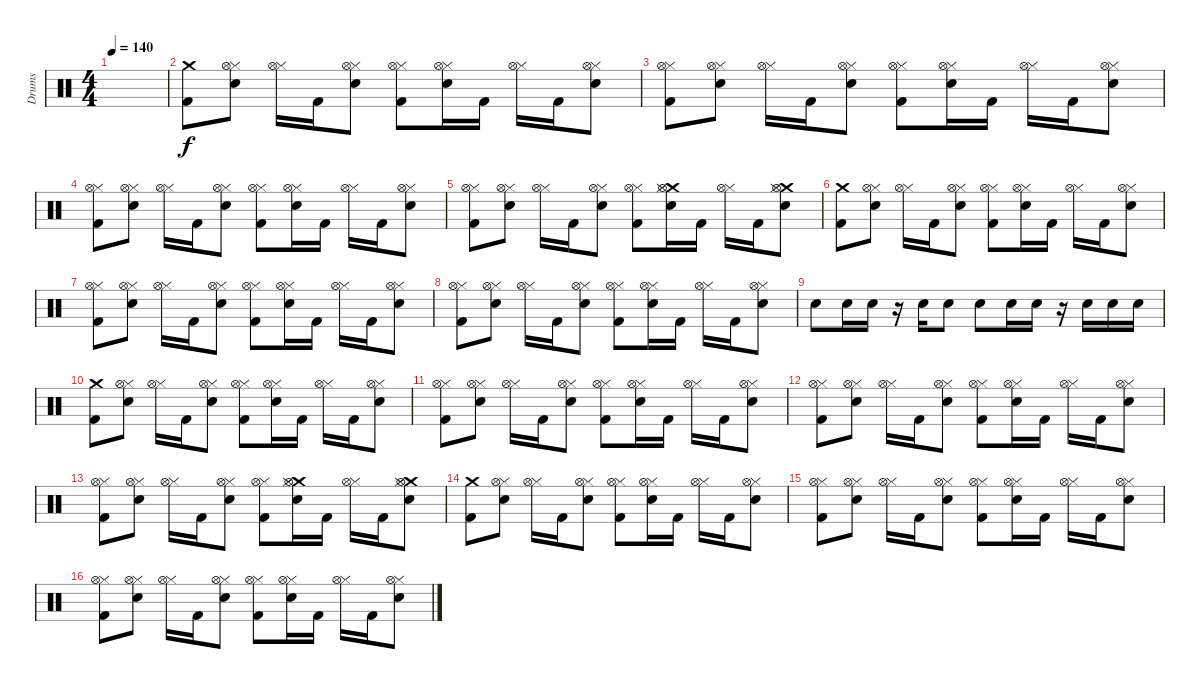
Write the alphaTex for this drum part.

\track ("Drums" "Drums") {instrument percussion}
\staff {score}
\articulation defaults
\ts (4 4)
\tempo 140
\clef neutral
\ks c
|
("Crash medium (hit)" "Kick (hit) 2").8 ("Hi-Hat (closed)" "Hi-Hat (open)" "Electric Snare (hit)").8 ("Hi-Hat (closed)" "Hi-Hat (open)").16 "Kick (hit) 2".16 ("Hi-Hat (closed)" "Hi-Hat (open)" "Electric Snare (hit)").8 ("Hi-Hat (closed)" "Hi-Hat (open)" "Kick (hit) 2").8 ("Hi-Hat (closed)" "Hi-Hat (open)" "Electric Snare (hit)").16 "Kick (hit) 2".16 ("Hi-Hat (closed)" "Hi-Hat (open)").16 "Kick (hit) 2".16 ("Hi-Hat (closed)" "Hi-Hat (open)" "Electric Snare (hit)").8 |
("Hi-Hat (closed)" "Hi-Hat (open)" "Kick (hit) 2").8 ("Hi-Hat (closed)" "Hi-Hat (open)" "Electric Snare (hit)").8 ("Hi-Hat (closed)" "Hi-Hat (open)").16 "Kick (hit) 2".16 ("Hi-Hat (closed)" "Hi-Hat (open)" "Electric Snare (hit)").8 ("Hi-Hat (closed)" "Hi-Hat (open)" "Kick (hit) 2").8 ("Hi-Hat (closed)" "Hi-Hat (open)" "Electric Snare (hit)").16 "Kick (hit) 2".16 ("Hi-Hat (closed)" "Hi-Hat (open)").16 "Kick (hit) 2".16 ("Hi-Hat (closed)" "Hi-Hat (open)" "Electric Snare (hit)").8 |
("Hi-Hat (closed)" "Hi-Hat (open)" "Kick (hit) 2").8 ("Hi-Hat (closed)" "Hi-Hat (open)" "Electric Snare (hit)").8 ("Hi-Hat (closed)" "Hi-Hat (open)").16 "Kick (hit) 2".16 ("Hi-Hat (closed)" "Hi-Hat (open)" "Electric Snare (hit)").8 ("Hi-Hat (closed)" "Hi-Hat (open)" "Kick (hit) 2").8 ("Hi-Hat (closed)" "Hi-Hat (open)" "Electric Snare (hit)").16 "Kick (hit) 2".16 ("Hi-Hat (closed)" "Hi-Hat (open)").16 "Kick (hit) 2".16 ("Hi-Hat (closed)" "Hi-Hat (open)" "Electric Snare (hit)").8 |
("Hi-Hat (closed)" "Hi-Hat (open)" "Kick (hit) 2").8 ("Hi-Hat (closed)" "Hi-Hat (open)" "Electric Snare (hit)").8 ("Hi-Hat (closed)" "Hi-Hat (open)").16 "Kick (hit) 2".16 ("Hi-Hat (closed)" "Hi-Hat (open)" "Electric Snare (hit)").8 ("Hi-Hat (closed)" "Hi-Hat (open)" "Kick (hit) 2").8 ("Crash medium (hit)" "Hi-Hat (closed)" "Hi-Hat (open)" "Electric Snare (hit)").16 "Kick (hit) 2".16 ("Hi-Hat (closed)" "Hi-Hat (open)").16 "Kick (hit) 2".16 ("Crash medium (hit)" "Hi-Hat (closed)" "Hi-Hat (open)" "Electric Snare (hit)").8 |
("Crash medium (hit)" "Kick (hit) 2").8 ("Hi-Hat (closed)" "Hi-Hat (open)" "Electric Snare (hit)").8 ("Hi-Hat (closed)" "Hi-Hat (open)").16 "Kick (hit) 2".16 ("Hi-Hat (closed)" "Hi-Hat (open)" "Electric Snare (hit)").8 ("Hi-Hat (closed)" "Hi-Hat (open)" "Kick (hit) 2").8 ("Hi-Hat (closed)" "Hi-Hat (open)" "Electric Snare (hit)").16 "Kick (hit) 2".16 ("Hi-Hat (closed)" "Hi-Hat (open)").16 "Kick (hit) 2".16 ("Hi-Hat (closed)" "Hi-Hat (open)" "Electric Snare (hit)").8 |
("Hi-Hat (closed)" "Hi-Hat (open)" "Kick (hit) 2").8 ("Hi-Hat (closed)" "Hi-Hat (open)" "Electric Snare (hit)").8 ("Hi-Hat (closed)" "Hi-Hat (open)").16 "Kick (hit) 2".16 ("Hi-Hat (closed)" "Hi-Hat (open)" "Electric Snare (hit)").8 ("Hi-Hat (closed)" "Hi-Hat (open)" "Kick (hit) 2").8 ("Hi-Hat (closed)" "Hi-Hat (open)" "Electric Snare (hit)").16 "Kick (hit) 2".16 ("Hi-Hat (closed)" "Hi-Hat (open)").16 "Kick (hit) 2".16 ("Hi-Hat (closed)" "Hi-Hat (open)" "Electric Snare (hit)").8 |
("Hi-Hat (closed)" "Hi-Hat (open)" "Kick (hit) 2").8 ("Hi-Hat (closed)" "Hi-Hat (open)" "Electric Snare (hit)").8 ("Hi-Hat (closed)" "Hi-Hat (open)").16 "Kick (hit) 2".16 ("Hi-Hat (closed)" "Hi-Hat (open)" "Electric Snare (hit)").8 ("Hi-Hat (closed)" "Hi-Hat (open)" "Kick (hit) 2").8 ("Hi-Hat (closed)" "Hi-Hat (open)" "Electric Snare (hit)").16 "Kick (hit) 2".16 ("Hi-Hat (closed)" "Hi-Hat (open)").16 "Kick (hit) 2".16 ("Hi-Hat (closed)" "Hi-Hat (open)" "Electric Snare (hit)").8 |
"Electric Snare (hit)".8 "Electric Snare (hit)".16 "Electric Snare (hit)".16 r.16 "Electric Snare (hit)".16 "Electric Snare (hit)".8 "Electric Snare (hit)".8 "Electric Snare (hit)".16 "Electric Snare (hit)".16 r.16 "Electric Snare (hit)".16 "Electric Snare (hit)".16 "Electric Snare (hit)".16 |
("Crash medium (hit)" "Kick (hit) 2").8 ("Hi-Hat (closed)" "Hi-Hat (open)" "Electric Snare (hit)").8 ("Hi-Hat (closed)" "Hi-Hat (open)").16 "Kick (hit) 2".16 ("Hi-Hat (closed)" "Hi-Hat (open)" "Electric Snare (hit)").8 ("Hi-Hat (closed)" "Hi-Hat (open)" "Kick (hit) 2").8 ("Hi-Hat (closed)" "Hi-Hat (open)" "Electric Snare (hit)").16 "Kick (hit) 2".16 ("Hi-Hat (closed)" "Hi-Hat (open)").16 "Kick (hit) 2".16 ("Hi-Hat (closed)" "Hi-Hat (open)" "Electric Snare (hit)").8 |
("Hi-Hat (closed)" "Hi-Hat (open)" "Kick (hit) 2").8 ("Hi-Hat (closed)" "Hi-Hat (open)" "Electric Snare (hit)").8 ("Hi-Hat (closed)" "Hi-Hat (open)").16 "Kick (hit) 2".16 ("Hi-Hat (closed)" "Hi-Hat (open)" "Electric Snare (hit)").8 ("Hi-Hat (closed)" "Hi-Hat (open)" "Kick (hit) 2").8 ("Hi-Hat (closed)" "Hi-Hat (open)" "Electric Snare (hit)").16 "Kick (hit) 2".16 ("Hi-Hat (closed)" "Hi-Hat (open)").16 "Kick (hit) 2".16 ("Hi-Hat (closed)" "Hi-Hat (open)" "Electric Snare (hit)").8 |
("Hi-Hat (closed)" "Hi-Hat (open)" "Kick (hit) 2").8 ("Hi-Hat (closed)" "Hi-Hat (open)" "Electric Snare (hit)").8 ("Hi-Hat (closed)" "Hi-Hat (open)").16 "Kick (hit) 2".16 ("Hi-Hat (closed)" "Hi-Hat (open)" "Electric Snare (hit)").8 ("Hi-Hat (closed)" "Hi-Hat (open)" "Kick (hit) 2").8 ("Hi-Hat (closed)" "Hi-Hat (open)" "Electric Snare (hit)").16 "Kick (hit) 2".16 ("Hi-Hat (closed)" "Hi-Hat (open)").16 "Kick (hit) 2".16 ("Hi-Hat (closed)" "Hi-Hat (open)" "Electric Snare (hit)").8 |
("Hi-Hat (closed)" "Hi-Hat (open)" "Kick (hit) 2").8 ("Hi-Hat (closed)" "Hi-Hat (open)" "Electric Snare (hit)").8 ("Hi-Hat (closed)" "Hi-Hat (open)").16 "Kick (hit) 2".16 ("Hi-Hat (closed)" "Hi-Hat (open)" "Electric Snare (hit)").8 ("Hi-Hat (closed)" "Hi-Hat (open)" "Kick (hit) 2").8 ("Crash medium (hit)" "Hi-Hat (closed)" "Hi-Hat (open)" "Electric Snare (hit)").16 "Kick (hit) 2".16 ("Hi-Hat (closed)" "Hi-Hat (open)").16 "Kick (hit) 2".16 ("Crash medium (hit)" "Hi-Hat (closed)" "Hi-Hat (open)" "Electric Snare (hit)").8 |
("Crash medium (hit)" "Kick (hit) 2").8 ("Hi-Hat (closed)" "Hi-Hat (open)" "Electric Snare (hit)").8 ("Hi-Hat (closed)" "Hi-Hat (open)").16 "Kick (hit) 2".16 ("Hi-Hat (closed)" "Hi-Hat (open)" "Electric Snare (hit)").8 ("Hi-Hat (closed)" "Hi-Hat (open)" "Kick (hit) 2").8 ("Hi-Hat (closed)" "Hi-Hat (open)" "Electric Snare (hit)").16 "Kick (hit) 2".16 ("Hi-Hat (closed)" "Hi-Hat (open)").16 "Kick (hit) 2".16 ("Hi-Hat (closed)" "Hi-Hat (open)" "Electric Snare (hit)").8 |
("Hi-Hat (closed)" "Hi-Hat (open)" "Kick (hit) 2").8 ("Hi-Hat (closed)" "Hi-Hat (open)" "Electric Snare (hit)").8 ("Hi-Hat (closed)" "Hi-Hat (open)").16 "Kick (hit) 2".16 ("Hi-Hat (closed)" "Hi-Hat (open)" "Electric Snare (hit)").8 ("Hi-Hat (closed)" "Hi-Hat (open)" "Kick (hit) 2").8 ("Hi-Hat (closed)" "Hi-Hat (open)" "Electric Snare (hit)").16 "Kick (hit) 2".16 ("Hi-Hat (closed)" "Hi-Hat (open)").16 "Kick (hit) 2".16 ("Hi-Hat (closed)" "Hi-Hat (open)" "Electric Snare (hit)").8 |
("Hi-Hat (closed)" "Hi-Hat (open)" "Kick (hit) 2").8 ("Hi-Hat (closed)" "Hi-Hat (open)" "Electric Snare (hit)").8 ("Hi-Hat (closed)" "Hi-Hat (open)").16 "Kick (hit) 2".16 ("Hi-Hat (closed)" "Hi-Hat (open)" "Electric Snare (hit)").8 ("Hi-Hat (closed)" "Hi-Hat (open)" "Kick (hit) 2").8 ("Hi-Hat (closed)" "Hi-Hat (open)" "Electric Snare (hit)").16 "Kick (hit) 2".16 ("Hi-Hat (closed)" "Hi-Hat (open)").16 "Kick (hit) 2".16 ("Hi-Hat (closed)" "Hi-Hat (open)" "Electric Snare (hit)").8
